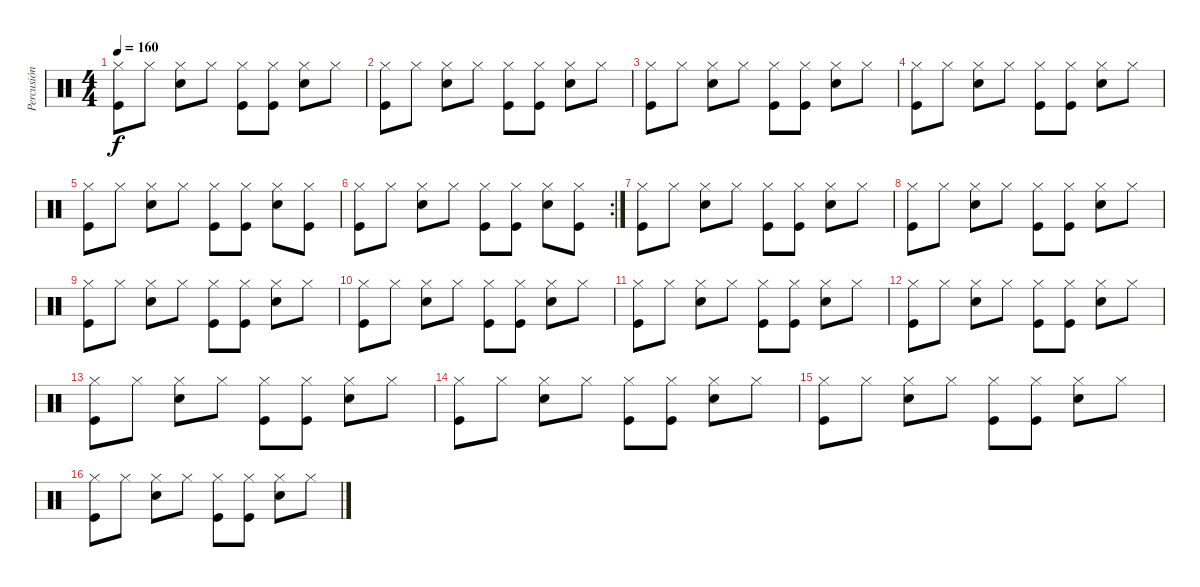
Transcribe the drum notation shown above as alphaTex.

\track ("Percusión" "Percusión") {instrument percussion}
\staff {score}
\articulation defaults
\ts (4 4)
\tempo 160
\clef neutral
\ks c
("Hi-Hat (closed)" "Kick (hit)").8{dy f} "Hi-Hat (closed)".8 ("Hi-Hat (closed)" "Electric Snare (hit)").8 "Hi-Hat (closed)".8 ("Hi-Hat (closed)" "Kick (hit)").8 ("Hi-Hat (closed)" "Kick (hit)").8 ("Hi-Hat (closed)" "Electric Snare (hit)").8 "Hi-Hat (closed)".8 |
("Hi-Hat (closed)" "Kick (hit)").8 "Hi-Hat (closed)".8 ("Hi-Hat (closed)" "Electric Snare (hit)").8 "Hi-Hat (closed)".8 ("Hi-Hat (closed)" "Kick (hit)").8 ("Hi-Hat (closed)" "Kick (hit)").8 ("Hi-Hat (closed)" "Electric Snare (hit)").8 "Hi-Hat (closed)".8 |
("Hi-Hat (closed)" "Kick (hit)").8 "Hi-Hat (closed)".8 ("Hi-Hat (closed)" "Electric Snare (hit)").8 "Hi-Hat (closed)".8 ("Hi-Hat (closed)" "Kick (hit)").8 ("Hi-Hat (closed)" "Kick (hit)").8 ("Hi-Hat (closed)" "Electric Snare (hit)").8 "Hi-Hat (closed)".8 |
("Hi-Hat (closed)" "Kick (hit)").8 "Hi-Hat (closed)".8 ("Hi-Hat (closed)" "Electric Snare (hit)").8 "Hi-Hat (closed)".8 ("Hi-Hat (closed)" "Kick (hit)").8 ("Hi-Hat (closed)" "Kick (hit)").8 ("Hi-Hat (closed)" "Electric Snare (hit)").8 "Hi-Hat (closed)".8 |
("Hi-Hat (closed)" "Kick (hit)").8 "Hi-Hat (closed)".8 ("Hi-Hat (closed)" "Electric Snare (hit)").8 "Hi-Hat (closed)".8 ("Hi-Hat (closed)" "Kick (hit)").8 ("Hi-Hat (closed)" "Kick (hit)").8 ("Hi-Hat (closed)" "Electric Snare (hit)").8 ("Hi-Hat (closed)" "Kick (hit)").8 |
\rc 2
("Hi-Hat (closed)" "Kick (hit)").8 "Hi-Hat (closed)".8 ("Hi-Hat (closed)" "Electric Snare (hit)").8 "Hi-Hat (closed)".8 ("Hi-Hat (closed)" "Kick (hit)").8 ("Hi-Hat (closed)" "Kick (hit)").8 ("Hi-Hat (closed)" "Electric Snare (hit)").8 ("Hi-Hat (closed)" "Kick (hit)").8 |
("Hi-Hat (closed)" "Kick (hit)").8 "Hi-Hat (closed)".8 ("Hi-Hat (closed)" "Electric Snare (hit)").8 "Hi-Hat (closed)".8 ("Hi-Hat (closed)" "Kick (hit)").8 ("Hi-Hat (closed)" "Kick (hit)").8 ("Hi-Hat (closed)" "Electric Snare (hit)").8 "Hi-Hat (closed)".8 |
("Hi-Hat (closed)" "Kick (hit)").8 "Hi-Hat (closed)".8 ("Hi-Hat (closed)" "Electric Snare (hit)").8 "Hi-Hat (closed)".8 ("Hi-Hat (closed)" "Kick (hit)").8 ("Hi-Hat (closed)" "Kick (hit)").8 ("Hi-Hat (closed)" "Electric Snare (hit)").8 "Hi-Hat (closed)".8 |
("Hi-Hat (closed)" "Kick (hit)").8 "Hi-Hat (closed)".8 ("Hi-Hat (closed)" "Electric Snare (hit)").8 "Hi-Hat (closed)".8 ("Hi-Hat (closed)" "Kick (hit)").8 ("Hi-Hat (closed)" "Kick (hit)").8 ("Hi-Hat (closed)" "Electric Snare (hit)").8 "Hi-Hat (closed)".8 |
("Hi-Hat (closed)" "Kick (hit)").8 "Hi-Hat (closed)".8 ("Hi-Hat (closed)" "Electric Snare (hit)").8 "Hi-Hat (closed)".8 ("Hi-Hat (closed)" "Kick (hit)").8 ("Hi-Hat (closed)" "Kick (hit)").8 ("Hi-Hat (closed)" "Electric Snare (hit)").8 "Hi-Hat (closed)".8 |
("Hi-Hat (closed)" "Kick (hit)").8 "Hi-Hat (closed)".8 ("Hi-Hat (closed)" "Electric Snare (hit)").8 "Hi-Hat (closed)".8 ("Hi-Hat (closed)" "Kick (hit)").8 ("Hi-Hat (closed)" "Kick (hit)").8 ("Hi-Hat (closed)" "Electric Snare (hit)").8 "Hi-Hat (closed)".8 |
("Hi-Hat (closed)" "Kick (hit)").8 "Hi-Hat (closed)".8 ("Hi-Hat (closed)" "Electric Snare (hit)").8 "Hi-Hat (closed)".8 ("Hi-Hat (closed)" "Kick (hit)").8 ("Hi-Hat (closed)" "Kick (hit)").8 ("Hi-Hat (closed)" "Electric Snare (hit)").8 "Hi-Hat (closed)".8 |
("Hi-Hat (closed)" "Kick (hit)").8 "Hi-Hat (closed)".8 ("Hi-Hat (closed)" "Electric Snare (hit)").8 "Hi-Hat (closed)".8 ("Hi-Hat (closed)" "Kick (hit)").8 ("Hi-Hat (closed)" "Kick (hit)").8 ("Hi-Hat (closed)" "Electric Snare (hit)").8 "Hi-Hat (closed)".8 |
("Hi-Hat (closed)" "Kick (hit)").8 "Hi-Hat (closed)".8 ("Hi-Hat (closed)" "Electric Snare (hit)").8 "Hi-Hat (closed)".8 ("Hi-Hat (closed)" "Kick (hit)").8 ("Hi-Hat (closed)" "Kick (hit)").8 ("Hi-Hat (closed)" "Electric Snare (hit)").8 "Hi-Hat (closed)".8 |
("Hi-Hat (closed)" "Kick (hit)").8 "Hi-Hat (closed)".8 ("Hi-Hat (closed)" "Electric Snare (hit)").8 "Hi-Hat (closed)".8 ("Hi-Hat (closed)" "Kick (hit)").8 ("Hi-Hat (closed)" "Kick (hit)").8 ("Hi-Hat (closed)" "Electric Snare (hit)").8 "Hi-Hat (closed)".8 |
("Hi-Hat (closed)" "Kick (hit)").8 "Hi-Hat (closed)".8 ("Hi-Hat (closed)" "Electric Snare (hit)").8 "Hi-Hat (closed)".8 ("Hi-Hat (closed)" "Kick (hit)").8 ("Hi-Hat (closed)" "Kick (hit)").8 ("Hi-Hat (closed)" "Electric Snare (hit)").8 "Hi-Hat (closed)".8
